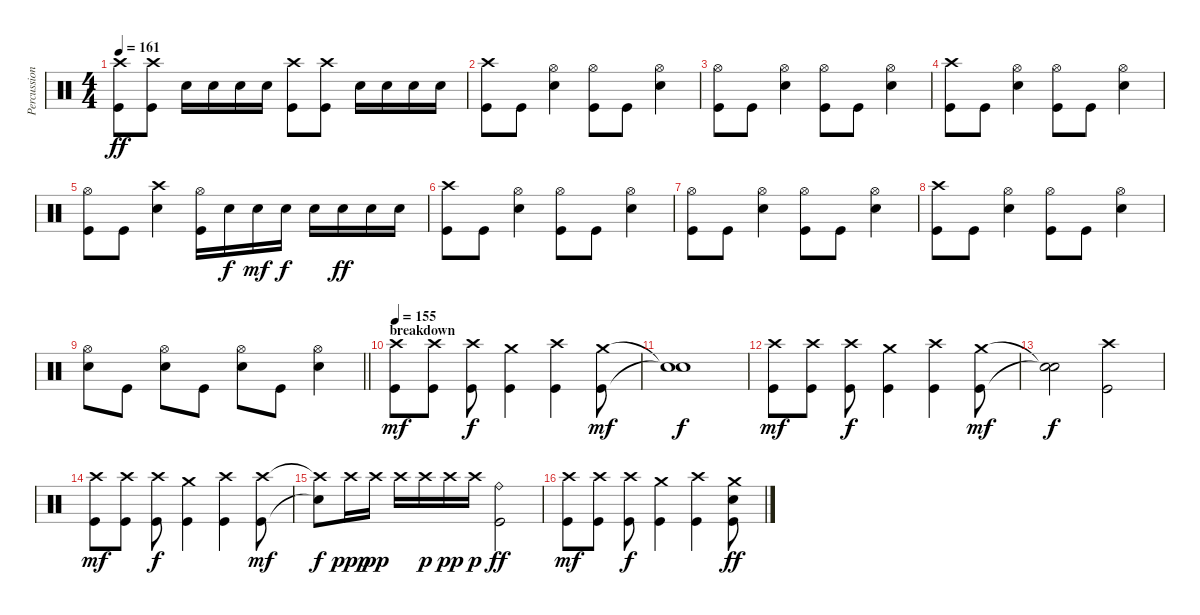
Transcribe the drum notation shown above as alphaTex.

\track ("Percussion" "Percussion") {instrument percussion}
\staff {score}
\articulation defaults
\ts (4 4)
\tempo 161
\clef neutral
\ks c
("Crash high (hit)" "Kick (hit)").8{dy ff} ("Crash high (hit)" "Kick (hit)").8 "Snare (hit) 2".16 "Snare (hit) 2".16 "Snare (hit) 2".16 "Snare (hit) 2".16 ("Crash high (hit)" "Kick (hit)").8 ("Crash high (hit)" "Kick (hit)").8 "Snare (hit) 2".16 "Snare (hit) 2".16 "Snare (hit) 2".16 "Snare (hit) 2".16 |
("Crash high (hit)" "Kick (hit)").8 "Kick (hit)".8 ("Hi-Hat (open)" "Snare (hit) 2").4 ("Hi-Hat (open)" "Kick (hit)").8 "Kick (hit)".8 ("Hi-Hat (open)" "Snare (hit) 2").4 |
("Hi-Hat (open)" "Kick (hit)").8 "Kick (hit)".8 ("Hi-Hat (open)" "Snare (hit) 2").4 ("Hi-Hat (open)" "Kick (hit)").8 "Kick (hit)".8 ("Hi-Hat (open)" "Snare (hit) 2").4 |
("Crash high (hit)" "Kick (hit)").8 "Kick (hit)".8 ("Hi-Hat (open)" "Snare (hit) 2").4 ("Hi-Hat (open)" "Kick (hit)").8 "Kick (hit)".8 ("Hi-Hat (open)" "Snare (hit) 2").4 |
("Hi-Hat (open)" "Kick (hit)").8 "Kick (hit)".8 ("Crash high (hit)" "Snare (hit) 2").4 ("Hi-Hat (open)" "Kick (hit)").16 "Snare (hit) 2".16{dy f} "Snare (hit) 2".16{dy mf} "Snare (hit) 2".16{dy f} "Snare (hit) 2".16 "Snare (hit) 2".16{dy ff} "Snare (hit) 2".16 "Snare (hit) 2".16 |
("Crash high (hit)" "Kick (hit)").8 "Kick (hit)".8 ("Hi-Hat (open)" "Snare (hit) 2").4 ("Hi-Hat (open)" "Kick (hit)").8 "Kick (hit)".8 ("Hi-Hat (open)" "Snare (hit) 2").4 |
("Hi-Hat (open)" "Kick (hit)").8 "Kick (hit)".8 ("Hi-Hat (open)" "Snare (hit) 2").4 ("Hi-Hat (open)" "Kick (hit)").8 "Kick (hit)".8 ("Hi-Hat (open)" "Snare (hit) 2").4 |
("Crash high (hit)" "Kick (hit)").8 "Kick (hit)".8 ("Hi-Hat (open)" "Snare (hit) 2").4 ("Hi-Hat (open)" "Kick (hit)").8 "Kick (hit)".8 ("Hi-Hat (open)" "Snare (hit) 2").4 |
\barLineRight lightlight
("Hi-Hat (open)" "Snare (hit) 2").8 "Kick (hit)".8 ("Hi-Hat (open)" "Snare (hit) 2").8 "Kick (hit)".8 ("Hi-Hat (open)" "Snare (hit) 2").8 "Kick (hit)".8 ("Hi-Hat (open)" "Snare (hit) 2").4 |
\section ("" "breakdown")
\tempo 155
("Crash high (hit)" "Kick (hit)").8{dy mf} ("Crash high (hit)" "Kick (hit)").8 ("Crash high (hit)" "Kick (hit)").8{dy f} ("Crash medium (hit)" "Kick (hit)").4 ("Crash high (hit)" "Kick (hit)").4 ("Crash medium (hit)" "Kick (hit)").8{dy mf} |
("Snare (hit)"{t} "Snare (hit)"{t}).1{dy f} |
("Crash high (hit)" "Kick (hit)").8{dy mf} ("Crash high (hit)" "Kick (hit)").8 ("Crash high (hit)" "Kick (hit)").8{dy f} ("Crash medium (hit)" "Kick (hit)").4 ("Crash high (hit)" "Kick (hit)").4 ("Crash medium (hit)" "Kick (hit)").8{dy mf} |
("Snare (hit)"{t} "Snare (hit)"{t}).2{dy f} ("Crash high (hit)" "Kick (hit)").2 |
("Crash high (hit)" "Kick (hit)").8{dy mf} ("Crash high (hit)" "Kick (hit)").8 ("Crash high (hit)" "Kick (hit)").8{dy f} ("Crash medium (hit)" "Kick (hit)").4 ("Crash high (hit)" "Kick (hit)").4 ("Crash high (hit)" "Kick (hit)").8{dy mf} |
("Crash high (hit)"{t} "Snare (hit)"{t}).8{dy f} "Crash high (hit)".16{dy ppp} "Crash high (hit)".16{dy pp} "Crash high (hit)".16 "Crash high (hit)".16{dy p} "Crash high (hit)".16{dy pp} "Crash high (hit)".16{dy p} ("Ride (bell)" "Kick (hit)").2{dy ff} |
("Crash high (hit)" "Kick (hit)").8{dy mf} ("Crash high (hit)" "Kick (hit)").8 ("Crash high (hit)" "Kick (hit)").8{dy f} ("Crash medium (hit)" "Kick (hit)").4 ("Crash high (hit)" "Kick (hit)").4 ("Crash medium (hit)" "Snare (hit) 2" "Kick (hit)").8{dy ff}
